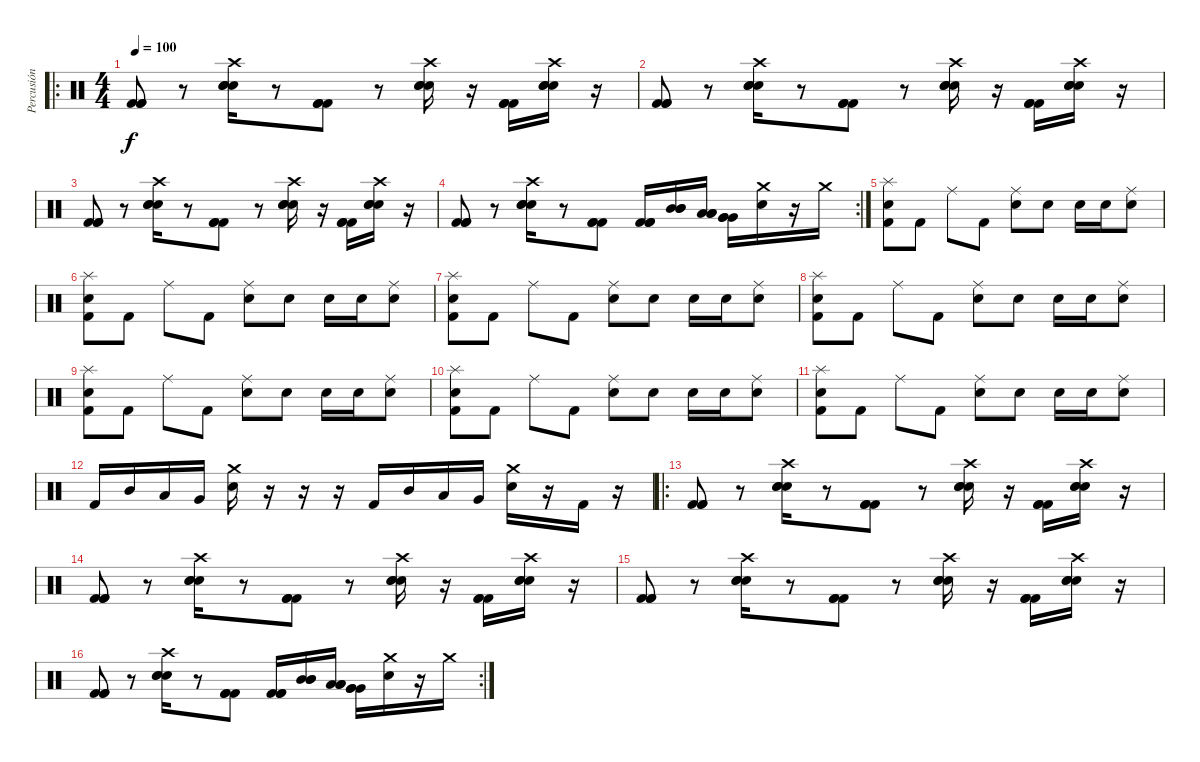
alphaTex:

\track ("Percusión" "Percusión") {instrument percussion}
\staff {score}
\articulation defaults
\ro
\ts (4 4)
\tempo 100
\clef neutral
\ks c
("Kick (hit) 2" "Kick (hit) 2" "Kick (hit) 2").8{dy f} r.8 ("Crash high (hit)" "Electric Snare (hit)" "Electric Snare (hit)" "Electric Snare (hit)").16 r.8 ("Kick (hit) 2" "Kick (hit) 2" "Kick (hit) 2").8 r.8 ("Crash high (hit)" "Electric Snare (hit)" "Electric Snare (hit)" "Electric Snare (hit)").16 r.16 ("Kick (hit) 2" "Kick (hit) 2" "Kick (hit) 2").16 ("Crash high (hit)" "Electric Snare (hit)" "Electric Snare (hit)" "Electric Snare (hit)").16 r.16 |
("Kick (hit) 2" "Kick (hit) 2" "Kick (hit) 2").8 r.8 ("Crash high (hit)" "Electric Snare (hit)" "Electric Snare (hit)" "Electric Snare (hit)").16 r.8 ("Kick (hit) 2" "Kick (hit) 2" "Kick (hit) 2").8 r.8 ("Crash high (hit)" "Electric Snare (hit)" "Electric Snare (hit)" "Electric Snare (hit)").16 r.16 ("Kick (hit) 2" "Kick (hit) 2" "Kick (hit) 2").16 ("Crash high (hit)" "Electric Snare (hit)" "Electric Snare (hit)" "Electric Snare (hit)").16 r.16 |
("Kick (hit) 2" "Kick (hit) 2" "Kick (hit) 2").8 r.8 ("Crash high (hit)" "Electric Snare (hit)" "Electric Snare (hit)" "Electric Snare (hit)").16 r.8 ("Kick (hit) 2" "Kick (hit) 2" "Kick (hit) 2").8 r.8 ("Crash high (hit)" "Electric Snare (hit)" "Electric Snare (hit)" "Electric Snare (hit)").16 r.16 ("Kick (hit) 2" "Kick (hit) 2" "Kick (hit) 2").16 ("Crash high (hit)" "Electric Snare (hit)" "Electric Snare (hit)" "Electric Snare (hit)").16 r.16 |
\rc 2
("Kick (hit) 2" "Kick (hit) 2" "Kick (hit) 2").8 r.8 ("Crash high (hit)" "Electric Snare (hit)" "Electric Snare (hit)" "Electric Snare (hit)").16 r.8 ("Kick (hit) 2" "Kick (hit) 2" "Kick (hit) 2").8 ("Kick (hit) 2" "Kick (hit) 2" "Kick (hit) 2").16 ("Mid Tom (hit)" "Mid Tom (hit)" "Mid Tom (hit)").16 ("Low Tom (hit)" "Low Tom (hit)" "Low Tom (hit)").16 ("Very Low Tom (hit)" "Very Low Tom (hit)" "Very Low Tom (hit)").16 ("Electric Snare (hit)" "Crash medium (hit)").16 r.16 "Crash medium (hit)".16 |
("Splash (hit)" "Electric Snare (hit)" "Kick (hit) 2").8 "Kick (hit) 2".8 "Ride (middle)".8 "Kick (hit) 2".8 ("Ride (middle)" "Electric Snare (hit)").8 "Electric Snare (hit)".8 "Electric Snare (hit)".16 "Electric Snare (hit)".16 ("Ride (middle)" "Electric Snare (hit)").8 |
("Splash (hit)" "Electric Snare (hit)" "Kick (hit) 2").8 "Kick (hit) 2".8 "Ride (middle)".8 "Kick (hit) 2".8 ("Ride (middle)" "Electric Snare (hit)").8 "Electric Snare (hit)".8 "Electric Snare (hit)".16 "Electric Snare (hit)".16 ("Ride (middle)" "Electric Snare (hit)").8 |
("Splash (hit)" "Electric Snare (hit)" "Kick (hit) 2").8 "Kick (hit) 2".8 "Ride (middle)".8 "Kick (hit) 2".8 ("Ride (middle)" "Electric Snare (hit)").8 "Electric Snare (hit)".8 "Electric Snare (hit)".16 "Electric Snare (hit)".16 ("Ride (middle)" "Electric Snare (hit)").8 |
("Splash (hit)" "Electric Snare (hit)" "Kick (hit) 2").8 "Kick (hit) 2".8 "Ride (middle)".8 "Kick (hit) 2".8 ("Ride (middle)" "Electric Snare (hit)").8 "Electric Snare (hit)".8 "Electric Snare (hit)".16 "Electric Snare (hit)".16 ("Ride (middle)" "Electric Snare (hit)").8 |
("Splash (hit)" "Electric Snare (hit)" "Kick (hit) 2").8 "Kick (hit) 2".8 "Ride (middle)".8 "Kick (hit) 2".8 ("Ride (middle)" "Electric Snare (hit)").8 "Electric Snare (hit)".8 "Electric Snare (hit)".16 "Electric Snare (hit)".16 ("Ride (middle)" "Electric Snare (hit)").8 |
("Splash (hit)" "Electric Snare (hit)" "Kick (hit) 2").8 "Kick (hit) 2".8 "Ride (middle)".8 "Kick (hit) 2".8 ("Ride (middle)" "Electric Snare (hit)").8 "Electric Snare (hit)".8 "Electric Snare (hit)".16 "Electric Snare (hit)".16 ("Ride (middle)" "Electric Snare (hit)").8 |
("Splash (hit)" "Electric Snare (hit)" "Kick (hit) 2").8 "Kick (hit) 2".8 "Ride (middle)".8 "Kick (hit) 2".8 ("Ride (middle)" "Electric Snare (hit)").8 "Electric Snare (hit)".8 "Electric Snare (hit)".16 "Electric Snare (hit)".16 ("Ride (middle)" "Electric Snare (hit)").8 |
"Kick (hit) 2".16 "Mid Tom (hit)".16 "Low Tom (hit)".16 "Very Low Tom (hit)".16 ("Crash medium (hit)" "Electric Snare (hit)").16 r.16 r.16 r.16 "Kick (hit) 2".16 "Mid Tom (hit)".16 "Low Tom (hit)".16 "Very Low Tom (hit)".16 ("Crash medium (hit)" "Electric Snare (hit)").16 r.16 "Kick (hit) 2".16 r.16 |
\ro
("Kick (hit) 2" "Kick (hit) 2" "Kick (hit) 2").8 r.8 ("Crash high (hit)" "Electric Snare (hit)" "Electric Snare (hit)" "Electric Snare (hit)").16 r.8 ("Kick (hit) 2" "Kick (hit) 2" "Kick (hit) 2").8 r.8 ("Crash high (hit)" "Electric Snare (hit)" "Electric Snare (hit)" "Electric Snare (hit)").16 r.16 ("Kick (hit) 2" "Kick (hit) 2" "Kick (hit) 2").16 ("Crash high (hit)" "Electric Snare (hit)" "Electric Snare (hit)" "Electric Snare (hit)").16 r.16 |
("Kick (hit) 2" "Kick (hit) 2" "Kick (hit) 2").8 r.8 ("Crash high (hit)" "Electric Snare (hit)" "Electric Snare (hit)" "Electric Snare (hit)").16 r.8 ("Kick (hit) 2" "Kick (hit) 2" "Kick (hit) 2").8 r.8 ("Crash high (hit)" "Electric Snare (hit)" "Electric Snare (hit)" "Electric Snare (hit)").16 r.16 ("Kick (hit) 2" "Kick (hit) 2" "Kick (hit) 2").16 ("Crash high (hit)" "Electric Snare (hit)" "Electric Snare (hit)" "Electric Snare (hit)").16 r.16 |
("Kick (hit) 2" "Kick (hit) 2" "Kick (hit) 2").8 r.8 ("Crash high (hit)" "Electric Snare (hit)" "Electric Snare (hit)" "Electric Snare (hit)").16 r.8 ("Kick (hit) 2" "Kick (hit) 2" "Kick (hit) 2").8 r.8 ("Crash high (hit)" "Electric Snare (hit)" "Electric Snare (hit)" "Electric Snare (hit)").16 r.16 ("Kick (hit) 2" "Kick (hit) 2" "Kick (hit) 2").16 ("Crash high (hit)" "Electric Snare (hit)" "Electric Snare (hit)" "Electric Snare (hit)").16 r.16 |
\rc 2
("Kick (hit) 2" "Kick (hit) 2" "Kick (hit) 2").8 r.8 ("Crash high (hit)" "Electric Snare (hit)" "Electric Snare (hit)" "Electric Snare (hit)").16 r.8 ("Kick (hit) 2" "Kick (hit) 2" "Kick (hit) 2").8 ("Kick (hit) 2" "Kick (hit) 2" "Kick (hit) 2").16 ("Mid Tom (hit)" "Mid Tom (hit)" "Mid Tom (hit)").16 ("Low Tom (hit)" "Low Tom (hit)" "Low Tom (hit)").16 ("Very Low Tom (hit)" "Very Low Tom (hit)" "Very Low Tom (hit)").16 ("Electric Snare (hit)" "Crash medium (hit)").16 r.16 "Crash medium (hit)".16
